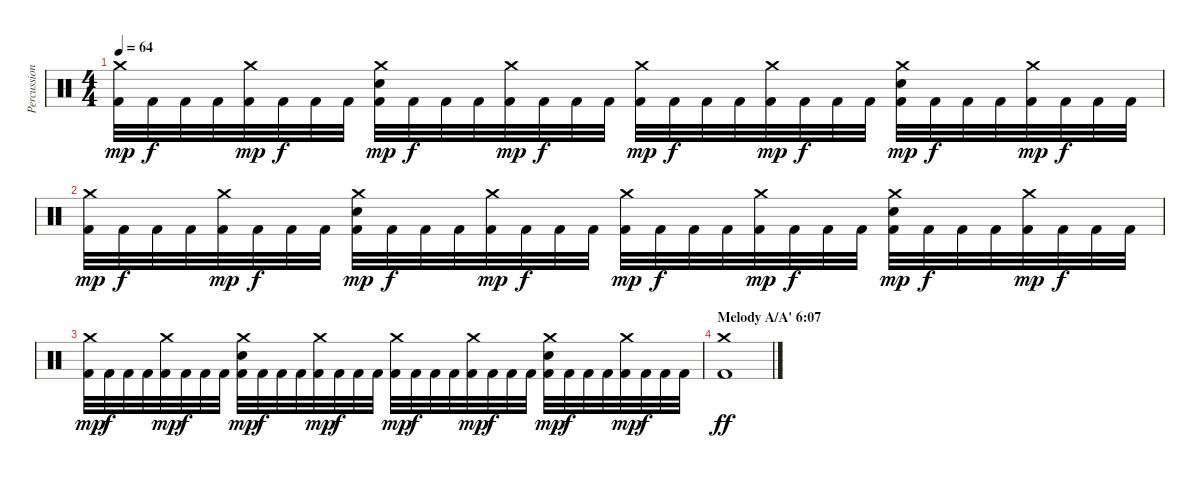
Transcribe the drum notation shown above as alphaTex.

\track ("Percussion" "Percussion") {instrument percussion}
\staff {score}
\articulation defaults
\ts (4 4)
\tempo 64
\clef neutral
\ks c
("Kick (hit) 2" "Crash medium (hit)").32{dy mp} "Kick (hit) 2".32{dy f} "Kick (hit) 2".32 "Kick (hit) 2".32 ("Kick (hit) 2" "Crash medium (hit)").32{dy mp} "Kick (hit) 2".32{dy f} "Kick (hit) 2".32 "Kick (hit) 2".32 ("Kick (hit) 2" "Electric Snare (hit)" "Crash medium (hit)").32{dy mp} "Kick (hit) 2".32{dy f} "Kick (hit) 2".32 "Kick (hit) 2".32 ("Kick (hit) 2" "Crash medium (hit)").32{dy mp} "Kick (hit) 2".32{dy f} "Kick (hit) 2".32 "Kick (hit) 2".32 ("Kick (hit) 2" "Crash medium (hit)").32{dy mp} "Kick (hit) 2".32{dy f} "Kick (hit) 2".32 "Kick (hit) 2".32 ("Kick (hit) 2" "Crash medium (hit)").32{dy mp} "Kick (hit) 2".32{dy f} "Kick (hit) 2".32 "Kick (hit) 2".32 ("Kick (hit) 2" "Electric Snare (hit)" "Crash medium (hit)").32{dy mp} "Kick (hit) 2".32{dy f} "Kick (hit) 2".32 "Kick (hit) 2".32 ("Kick (hit) 2" "Crash medium (hit)").32{dy mp} "Kick (hit) 2".32{dy f} "Kick (hit) 2".32 "Kick (hit) 2".32 |
("Kick (hit) 2" "Crash medium (hit)").32{dy mp} "Kick (hit) 2".32{dy f} "Kick (hit) 2".32 "Kick (hit) 2".32 ("Kick (hit) 2" "Crash medium (hit)").32{dy mp} "Kick (hit) 2".32{dy f} "Kick (hit) 2".32 "Kick (hit) 2".32 ("Kick (hit) 2" "Electric Snare (hit)" "Crash medium (hit)").32{dy mp} "Kick (hit) 2".32{dy f} "Kick (hit) 2".32 "Kick (hit) 2".32 ("Kick (hit) 2" "Crash medium (hit)").32{dy mp} "Kick (hit) 2".32{dy f} "Kick (hit) 2".32 "Kick (hit) 2".32 ("Kick (hit) 2" "Crash medium (hit)").32{dy mp} "Kick (hit) 2".32{dy f} "Kick (hit) 2".32 "Kick (hit) 2".32 ("Kick (hit) 2" "Crash medium (hit)").32{dy mp} "Kick (hit) 2".32{dy f} "Kick (hit) 2".32 "Kick (hit) 2".32 ("Kick (hit) 2" "Electric Snare (hit)" "Crash medium (hit)").32{dy mp} "Kick (hit) 2".32{dy f} "Kick (hit) 2".32 "Kick (hit) 2".32 ("Kick (hit) 2" "Crash medium (hit)").32{dy mp} "Kick (hit) 2".32{dy f} "Kick (hit) 2".32 "Kick (hit) 2".32 |
("Kick (hit) 2" "Crash medium (hit)").32{dy mp} "Kick (hit) 2".32{dy f} "Kick (hit) 2".32 "Kick (hit) 2".32 ("Kick (hit) 2" "Crash medium (hit)").32{dy mp} "Kick (hit) 2".32{dy f} "Kick (hit) 2".32 "Kick (hit) 2".32 ("Kick (hit) 2" "Electric Snare (hit)" "Crash medium (hit)").32{dy mp} "Kick (hit) 2".32{dy f} "Kick (hit) 2".32 "Kick (hit) 2".32 ("Kick (hit) 2" "Crash medium (hit)").32{dy mp} "Kick (hit) 2".32{dy f} "Kick (hit) 2".32 "Kick (hit) 2".32 ("Kick (hit) 2" "Crash medium (hit)").32{dy mp} "Kick (hit) 2".32{dy f} "Kick (hit) 2".32 "Kick (hit) 2".32 ("Kick (hit) 2" "Crash medium (hit)").32{dy mp} "Kick (hit) 2".32{dy f} "Kick (hit) 2".32 "Kick (hit) 2".32 ("Kick (hit) 2" "Electric Snare (hit)" "Crash medium (hit)").32{dy mp} "Kick (hit) 2".32{dy f} "Kick (hit) 2".32 "Kick (hit) 2".32 ("Kick (hit) 2" "Crash medium (hit)").32{dy mp} "Kick (hit) 2".32{dy f} "Kick (hit) 2".32 "Kick (hit) 2".32 |
\section ("" "Melody A/A' 6:07")
("Kick (hit) 2" "Crash medium (hit)").1{dy ff}
